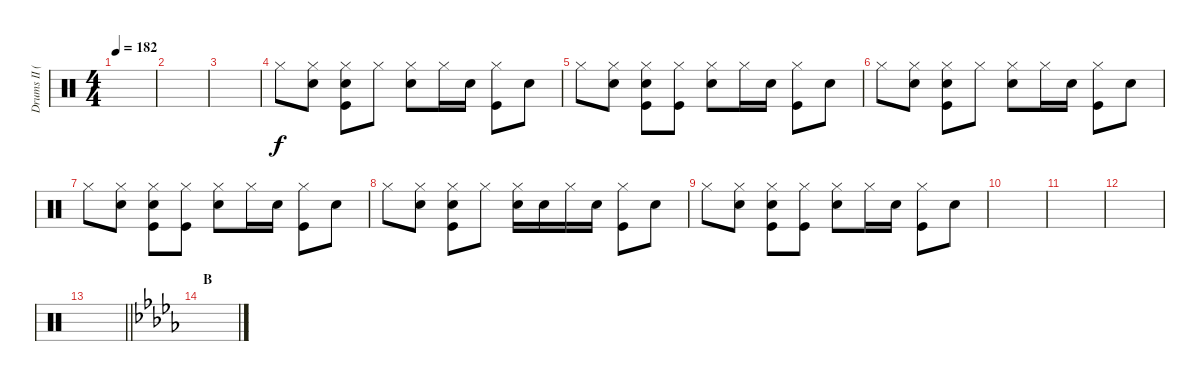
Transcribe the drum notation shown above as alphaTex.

\track ("Drums II (Tainaka Ritsu)" "Drums II (") {instrument percussion}
\staff {score}
\articulation defaults
\ts (4 4)
\tempo 182
\clef neutral
\ks c
|
|
|
"Hi-Hat (closed)".8 ("Hi-Hat (closed)" "Snare (hit) 2").8 ("Hi-Hat (closed)" "Snare (hit) 2" "Kick (hit)").8 "Hi-Hat (closed)".8 ("Hi-Hat (closed)" "Snare (hit) 2").8 "Hi-Hat (closed)".16 "Snare (hit) 2".16 ("Hi-Hat (closed)" "Kick (hit)").8 "Snare (hit) 2".8 |
"Hi-Hat (closed)".8 ("Hi-Hat (closed)" "Snare (hit) 2").8 ("Hi-Hat (closed)" "Snare (hit) 2" "Kick (hit)").8 ("Hi-Hat (closed)" "Kick (hit)").8 ("Hi-Hat (closed)" "Snare (hit) 2").8 "Hi-Hat (closed)".16 "Snare (hit) 2".16 ("Hi-Hat (closed)" "Kick (hit)").8 "Snare (hit) 2".8 |
"Hi-Hat (closed)".8 ("Hi-Hat (closed)" "Snare (hit) 2").8 ("Hi-Hat (closed)" "Snare (hit) 2" "Kick (hit)").8 "Hi-Hat (closed)".8 ("Hi-Hat (closed)" "Snare (hit) 2").8 "Hi-Hat (closed)".16 "Snare (hit) 2".16 ("Hi-Hat (closed)" "Kick (hit)").8 "Snare (hit) 2".8 |
"Hi-Hat (closed)".8 ("Hi-Hat (closed)" "Snare (hit) 2").8 ("Hi-Hat (closed)" "Snare (hit) 2" "Kick (hit)").8 ("Hi-Hat (closed)" "Kick (hit)").8 ("Hi-Hat (closed)" "Snare (hit) 2").8 "Hi-Hat (closed)".16 "Snare (hit) 2".16 ("Hi-Hat (closed)" "Kick (hit)").8 "Snare (hit) 2".8 |
"Hi-Hat (closed)".8 ("Hi-Hat (closed)" "Snare (hit) 2").8 ("Hi-Hat (closed)" "Snare (hit) 2" "Kick (hit)").8 "Hi-Hat (closed)".8 ("Hi-Hat (closed)" "Snare (hit) 2").16 "Snare (hit) 2".16 "Hi-Hat (closed)".16 "Snare (hit) 2".16 ("Hi-Hat (closed)" "Kick (hit)").8 "Snare (hit) 2".8 |
"Hi-Hat (closed)".8 ("Hi-Hat (closed)" "Snare (hit) 2").8 ("Hi-Hat (closed)" "Snare (hit) 2" "Kick (hit)").8 ("Hi-Hat (closed)" "Kick (hit)").8 ("Hi-Hat (closed)" "Snare (hit) 2").8 "Hi-Hat (closed)".16 "Snare (hit) 2".16 ("Hi-Hat (closed)" "Kick (hit)").8 "Snare (hit) 2".8 |
|
|
|
\barLineRight lightlight
|
\section ("" "B")
\ks db
